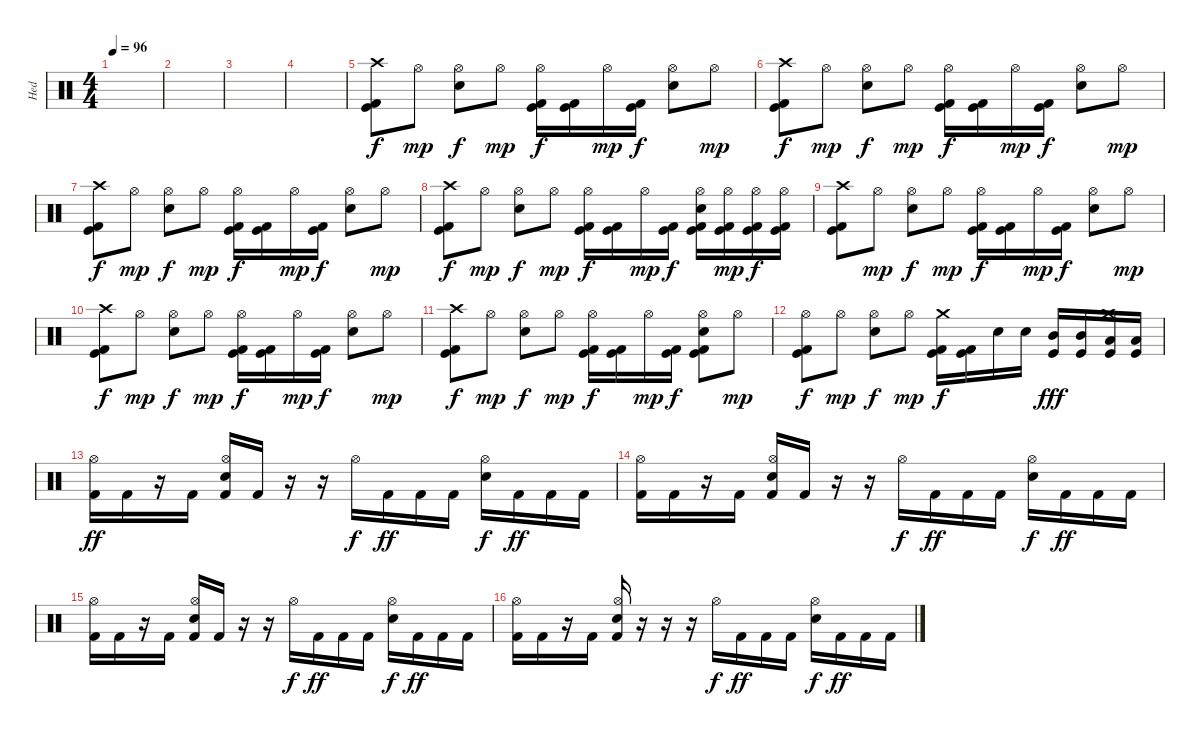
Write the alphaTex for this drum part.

\track ("Hed" "Hed") {instrument percussion}
\staff {score}
\articulation defaults
\ts (4 4)
\tempo 96
\clef neutral
\ks c
|
|
|
|
("Crash high (hit)" "Kick (hit) 2" "Kick (hit)").8 "Hi-Hat (open)".8{dy mp} ("Hi-Hat (open)" "Snare (hit) 2").8{dy f} "Hi-Hat (open)".8{dy mp} ("Hi-Hat (open)" "Kick (hit) 2" "Kick (hit)").16{dy f} ("Kick (hit) 2" "Kick (hit)").16 "Hi-Hat (open)".16{dy mp} ("Kick (hit) 2" "Kick (hit)").16{dy f} ("Hi-Hat (open)" "Snare (hit) 2").8 "Hi-Hat (open)".8{dy mp} |
("Crash high (hit)" "Kick (hit) 2" "Kick (hit)").8{dy f} "Hi-Hat (open)".8{dy mp} ("Hi-Hat (open)" "Snare (hit) 2").8{dy f} "Hi-Hat (open)".8{dy mp} ("Hi-Hat (open)" "Kick (hit) 2" "Kick (hit)").16{dy f} ("Kick (hit) 2" "Kick (hit)").16 "Hi-Hat (open)".16{dy mp} ("Kick (hit) 2" "Kick (hit)").16{dy f} ("Hi-Hat (open)" "Snare (hit) 2").8 "Hi-Hat (open)".8{dy mp} |
("Crash high (hit)" "Kick (hit) 2" "Kick (hit)").8{dy f} "Hi-Hat (open)".8{dy mp} ("Hi-Hat (open)" "Snare (hit) 2").8{dy f} "Hi-Hat (open)".8{dy mp} ("Hi-Hat (open)" "Kick (hit) 2" "Kick (hit)").16{dy f} ("Kick (hit) 2" "Kick (hit)").16 "Hi-Hat (open)".16{dy mp} ("Kick (hit) 2" "Kick (hit)").16{dy f} ("Hi-Hat (open)" "Snare (hit) 2").8 "Hi-Hat (open)".8{dy mp} |
("Crash high (hit)" "Kick (hit) 2" "Kick (hit)").8{dy f} "Hi-Hat (open)".8{dy mp} ("Hi-Hat (open)" "Snare (hit) 2").8{dy f} "Hi-Hat (open)".8{dy mp} ("Hi-Hat (open)" "Kick (hit) 2" "Kick (hit)").16{dy f} ("Kick (hit) 2" "Kick (hit)").16 "Hi-Hat (open)".16{dy mp} ("Kick (hit) 2" "Kick (hit)").16{dy f} ("Hi-Hat (open)" "Snare (hit) 2" "Kick (hit) 2" "Kick (hit)").16 ("Hi-Hat (open)" "Kick (hit) 2" "Kick (hit)").16{dy mp} ("Hi-Hat (open)" "Kick (hit) 2" "Kick (hit)").16{dy f} ("Hi-Hat (open)" "Kick (hit) 2" "Kick (hit)").16 |
("Crash high (hit)" "Kick (hit) 2" "Kick (hit)").8 "Hi-Hat (open)".8{dy mp} ("Hi-Hat (open)" "Snare (hit) 2").8{dy f} "Hi-Hat (open)".8{dy mp} ("Hi-Hat (open)" "Kick (hit) 2" "Kick (hit)").16{dy f} ("Kick (hit) 2" "Kick (hit)").16 "Hi-Hat (open)".16{dy mp} ("Kick (hit) 2" "Kick (hit)").16{dy f} ("Hi-Hat (open)" "Snare (hit) 2").8 "Hi-Hat (open)".8{dy mp} |
("Crash high (hit)" "Kick (hit) 2" "Kick (hit)").8{dy f} "Hi-Hat (open)".8{dy mp} ("Hi-Hat (open)" "Snare (hit) 2").8{dy f} "Hi-Hat (open)".8{dy mp} ("Hi-Hat (open)" "Kick (hit) 2" "Kick (hit)").16{dy f} ("Kick (hit) 2" "Kick (hit)").16 "Hi-Hat (open)".16{dy mp} ("Kick (hit) 2" "Kick (hit)").16{dy f} ("Hi-Hat (open)" "Snare (hit) 2").8 "Hi-Hat (open)".8{dy mp} |
("Crash high (hit)" "Kick (hit) 2" "Kick (hit)").8{dy f} "Hi-Hat (open)".8{dy mp} ("Hi-Hat (open)" "Snare (hit) 2").8{dy f} "Hi-Hat (open)".8{dy mp} ("Hi-Hat (open)" "Kick (hit) 2" "Kick (hit)").16{dy f} ("Kick (hit) 2" "Kick (hit)").16 "Hi-Hat (open)".16{dy mp} ("Kick (hit) 2" "Kick (hit)").16{dy f} ("Hi-Hat (open)" "Snare (hit) 2" "Kick (hit) 2" "Kick (hit)").8 "Hi-Hat (open)".8{dy mp} |
("Hi-Hat (open)" "Kick (hit) 2" "Kick (hit)").8{dy f} "Hi-Hat (open)".8{dy mp} ("Hi-Hat (open)" "Snare (hit) 2").8{dy f} "Hi-Hat (open)".8{dy mp} ("Crash medium (hit)" "Kick (hit) 2" "Kick (hit)").16{dy f} ("Kick (hit) 2" "Kick (hit)").16 "Snare (hit) 2".16 "Snare (hit) 2".16 ("Mid Tom (hit)" "Kick (hit)").16{dy fff} ("Mid Tom (hit)" "Kick (hit)").16 ("Crash medium (hit)" "Low Tom (hit)" "Kick (hit)").16 ("Low Tom (hit)" "Kick (hit)").16 |
("Hi-Hat (open)" "Kick (hit) 2").16{dy ff} "Kick (hit) 2".16 r.16 "Kick (hit) 2".16 ("Hi-Hat (open)" "Snare (hit) 2" "Kick (hit) 2").16 "Kick (hit) 2".16 r.16 r.16 "Hi-Hat (open)".16{dy f} "Kick (hit) 2".16{dy ff} "Kick (hit) 2".16 "Kick (hit) 2".16 ("Hi-Hat (open)" "Snare (hit) 2").16{dy f} "Kick (hit) 2".16{dy ff} "Kick (hit) 2".16 "Kick (hit) 2".16 |
("Hi-Hat (open)" "Kick (hit) 2").16 "Kick (hit) 2".16 r.16 "Kick (hit) 2".16 ("Hi-Hat (open)" "Snare (hit) 2" "Kick (hit) 2").16 "Kick (hit) 2".16 r.16 r.16 "Hi-Hat (open)".16{dy f} "Kick (hit) 2".16{dy ff} "Kick (hit) 2".16 "Kick (hit) 2".16 ("Hi-Hat (open)" "Snare (hit) 2").16{dy f} "Kick (hit) 2".16{dy ff} "Kick (hit) 2".16 "Kick (hit) 2".16 |
("Hi-Hat (open)" "Kick (hit) 2").16 "Kick (hit) 2".16 r.16 "Kick (hit) 2".16 ("Hi-Hat (open)" "Snare (hit) 2" "Kick (hit) 2").16 "Kick (hit) 2".16 r.16 r.16 "Hi-Hat (open)".16{dy f} "Kick (hit) 2".16{dy ff} "Kick (hit) 2".16 "Kick (hit) 2".16 ("Hi-Hat (open)" "Snare (hit) 2").16{dy f} "Kick (hit) 2".16{dy ff} "Kick (hit) 2".16 "Kick (hit) 2".16 |
("Hi-Hat (open)" "Kick (hit) 2").16 "Kick (hit) 2".16 r.16 "Kick (hit) 2".16 ("Hi-Hat (open)" "Snare (hit) 2" "Kick (hit) 2").16 r.16 r.16 r.16 "Hi-Hat (open)".16{dy f} "Kick (hit) 2".16{dy ff} "Kick (hit) 2".16 "Kick (hit) 2".16 ("Hi-Hat (open)" "Snare (hit) 2").16{dy f} "Kick (hit) 2".16{dy ff} "Kick (hit) 2".16 "Kick (hit) 2".16
